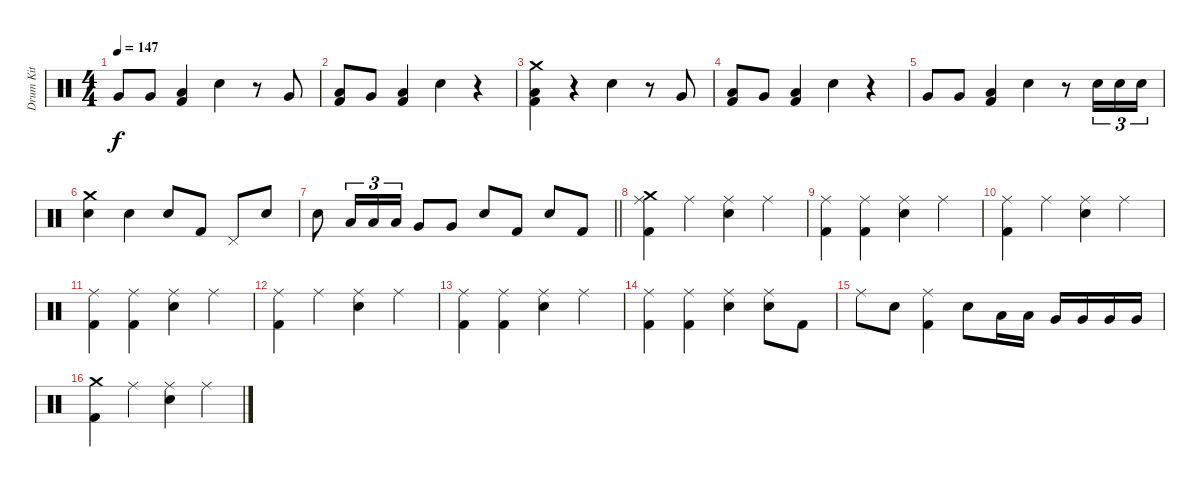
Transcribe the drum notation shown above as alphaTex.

\track ("Drum Kit" "Drum Kit") {instrument percussion}
\staff {score}
\articulation defaults
\ts (4 4)
\tempo 147
\clef neutral
\ks c "Very Low Tom (hit)".8{dy f} "Very Low Tom (hit)".8
("Low Floor Tom (hit)" "Kick (hit) 2").4 "Snare (hit) 2".4 r.8 "Very Low Tom (hit)".8 |
("Low Floor Tom (hit)" "Kick (hit) 2").8 "Very Low Tom (hit)".8 ("Low Floor Tom (hit)" "Kick (hit) 2").4 "Snare (hit) 2".4 r.4 |
("Crash medium (hit)" "Low Floor Tom (hit)" "Kick (hit) 2").4 r.4 "Snare (hit) 2".4 r.8 "Very Low Tom (hit)".8 |
("Low Floor Tom (hit)" "Kick (hit) 2").8 "Very Low Tom (hit)".8 ("Low Floor Tom (hit)" "Kick (hit) 2").4 "Snare (hit) 2".4 r.4 |
"Very Low Tom (hit)".8 "Very Low Tom (hit)".8 ("Low Floor Tom (hit)" "Kick (hit) 2").4 "Snare (hit) 2".4 r.8 "Snare (hit) 2".16{tu (3 2)} "Snare (hit) 2".16{tu (3 2)} "Snare (hit) 2".16{tu (3 2)} |
("Crash medium (hit)" "Snare (hit) 2").4 "Snare (hit) 2".4 "Snare (hit) 2".8 "Kick (hit) 2".8 "Pedal Hi-Hat (hit)".8 "Snare (hit) 2".8 |
\barLineRight lightlight "Snare (hit) 2".8 "Low Tom (hit)".16{tu (3 2)} "Low Tom (hit)".16{tu (3 2)} "Low Tom (hit)".16{tu (3 2)} "Very Low Tom (hit)".8 "Very Low Tom (hit)".8 "Snare (hit) 2".8 "Kick (hit) 2".8 "Snare (hit) 2".8 "Kick (hit) 2".8
|
("Crash medium (hit)" "Ride (middle)" "Kick (hit) 2").4 "Ride (middle)".4 ("Ride (middle)" "Snare (hit) 2").4 "Ride (middle)".4 |
("Ride (middle)" "Kick (hit) 2").4 ("Ride (middle)" "Kick (hit) 2").4 ("Ride (middle)" "Snare (hit) 2").4 "Ride (middle)".4 |
("Ride (middle)" "Kick (hit) 2").4 "Ride (middle)".4 ("Ride (middle)" "Snare (hit) 2").4 "Ride (middle)".4 |
("Ride (middle)" "Kick (hit) 2").4 ("Ride (middle)" "Kick (hit) 2").4 ("Ride (middle)" "Snare (hit) 2").4 "Ride (middle)".4 |
("Ride (middle)" "Kick (hit) 2").4 "Ride (middle)".4 ("Ride (middle)" "Snare (hit) 2").4 "Ride (middle)".4 |
("Ride (middle)" "Kick (hit) 2").4 ("Ride (middle)" "Kick (hit) 2").4 ("Ride (middle)" "Snare (hit) 2").4 "Ride (middle)".4 |
("Ride (middle)" "Kick (hit) 2").4 ("Ride (middle)" "Kick (hit) 2").4 ("Ride (middle)" "Snare (hit) 2").4 ("Ride (middle)" "Snare (hit) 2").8 "Kick (hit) 2".8 |
"Ride (middle)".8 "Snare (hit) 2".8 ("Ride (middle)" "Kick (hit) 2").4 "Snare (hit) 2".8 "Low Tom (hit)".16 "Low Tom (hit)".16 "Very Low Tom (hit)".16 "Very Low Tom (hit)".16 "Very Low Tom (hit)".16 "Very Low Tom (hit)".16 |
("Crash medium (hit)" "Kick (hit) 2").4 "Ride (middle)".4 ("Ride (middle)" "Snare (hit) 2").4 "Ride (middle)".4
